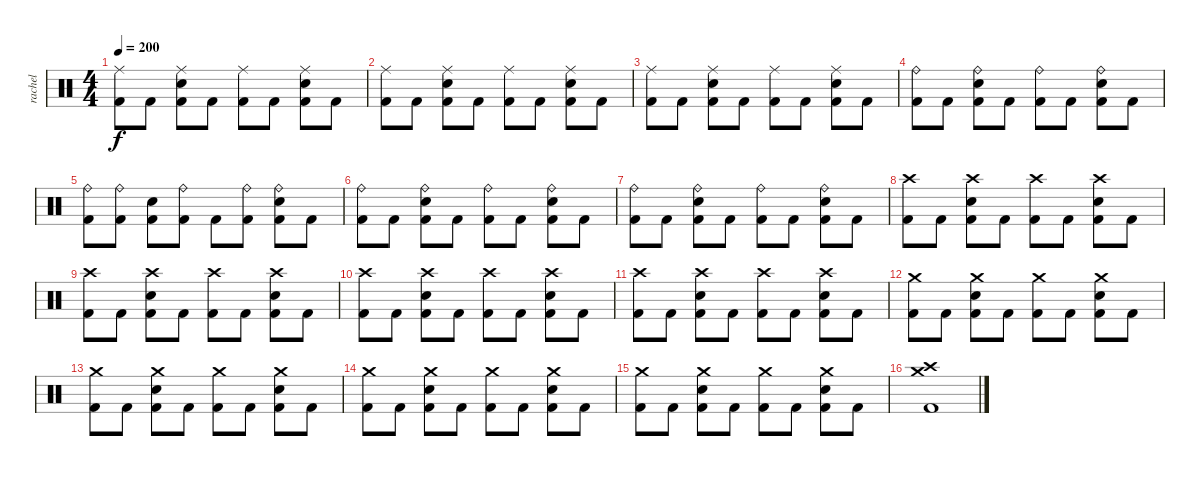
\track ("rachel" "rachel") {instrument percussion}
\staff {score}
\articulation defaults
\ts (4 4)
\tempo 200
\clef neutral
\ks c
("Ride (middle)" "Kick (hit) 2").8{dy f} "Kick (hit) 2".8 ("Ride (middle)" "Electric Snare (hit)" "Kick (hit) 2").8 "Kick (hit) 2".8 ("Ride (middle)" "Kick (hit) 2").8 "Kick (hit) 2".8 ("Ride (middle)" "Electric Snare (hit)" "Kick (hit) 2").8 "Kick (hit) 2".8 |
("Ride (middle)" "Kick (hit) 2").8 "Kick (hit) 2".8 ("Ride (middle)" "Electric Snare (hit)" "Kick (hit) 2").8 "Kick (hit) 2".8 ("Ride (middle)" "Kick (hit) 2").8 "Kick (hit) 2".8 ("Ride (middle)" "Electric Snare (hit)" "Kick (hit) 2").8 "Kick (hit) 2".8 |
("Ride (middle)" "Kick (hit) 2").8 "Kick (hit) 2".8 ("Ride (middle)" "Electric Snare (hit)" "Kick (hit) 2").8 "Kick (hit) 2".8 ("Ride (middle)" "Kick (hit) 2").8 "Kick (hit) 2".8 ("Ride (middle)" "Electric Snare (hit)" "Kick (hit) 2").8 "Kick (hit) 2".8 |
("Ride (bell)" "Kick (hit) 2").8 "Kick (hit) 2".8 ("Ride (bell)" "Electric Snare (hit)" "Kick (hit) 2").8 "Kick (hit) 2".8 ("Ride (bell)" "Kick (hit) 2").8 "Kick (hit) 2".8 ("Ride (bell)" "Electric Snare (hit)" "Kick (hit) 2").8 "Kick (hit) 2".8 |
("Ride (bell)" "Kick (hit) 2").8 ("Ride (bell)" "Kick (hit) 2").8 ("Electric Snare (hit)" "Kick (hit) 2").8 ("Ride (bell)" "Kick (hit) 2").8 "Kick (hit) 2".8 ("Ride (bell)" "Kick (hit) 2").8 ("Ride (bell)" "Electric Snare (hit)" "Kick (hit) 2").8 "Kick (hit) 2".8 |
("Ride (bell)" "Kick (hit) 2").8 "Kick (hit) 2".8 ("Ride (bell)" "Electric Snare (hit)" "Kick (hit) 2").8 "Kick (hit) 2".8 ("Ride (bell)" "Kick (hit) 2").8 "Kick (hit) 2".8 ("Ride (bell)" "Electric Snare (hit)" "Kick (hit) 2").8 "Kick (hit) 2".8 |
("Ride (bell)" "Kick (hit) 2").8 "Kick (hit) 2".8 ("Ride (bell)" "Electric Snare (hit)" "Kick (hit) 2").8 "Kick (hit) 2".8 ("Ride (bell)" "Kick (hit) 2").8 "Kick (hit) 2".8 ("Ride (bell)" "Electric Snare (hit)" "Kick (hit) 2").8 "Kick (hit) 2".8 |
("Crash high (hit)" "Kick (hit) 2").8 "Kick (hit) 2".8 ("Crash high (hit)" "Electric Snare (hit)" "Kick (hit) 2").8 "Kick (hit) 2".8 ("Crash high (hit)" "Kick (hit) 2").8 "Kick (hit) 2".8 ("Crash high (hit)" "Electric Snare (hit)" "Kick (hit) 2").8 "Kick (hit) 2".8 |
("Crash high (hit)" "Kick (hit) 2").8 "Kick (hit) 2".8 ("Crash high (hit)" "Electric Snare (hit)" "Kick (hit) 2").8 "Kick (hit) 2".8 ("Crash high (hit)" "Kick (hit) 2").8 "Kick (hit) 2".8 ("Crash high (hit)" "Electric Snare (hit)" "Kick (hit) 2").8 "Kick (hit) 2".8 |
("Crash high (hit)" "Kick (hit) 2").8 "Kick (hit) 2".8 ("Crash high (hit)" "Electric Snare (hit)" "Kick (hit) 2").8 "Kick (hit) 2".8 ("Crash high (hit)" "Kick (hit) 2").8 "Kick (hit) 2".8 ("Crash high (hit)" "Electric Snare (hit)" "Kick (hit) 2").8 "Kick (hit) 2".8 |
("Crash high (hit)" "Kick (hit) 2").8 "Kick (hit) 2".8 ("Crash high (hit)" "Electric Snare (hit)" "Kick (hit) 2").8 "Kick (hit) 2".8 ("Crash high (hit)" "Kick (hit) 2").8 "Kick (hit) 2".8 ("Crash high (hit)" "Electric Snare (hit)" "Kick (hit) 2").8 "Kick (hit) 2".8 |
("Crash medium (hit)" "Kick (hit) 2").8 "Kick (hit) 2".8 ("Crash medium (hit)" "Electric Snare (hit)" "Kick (hit) 2").8 "Kick (hit) 2".8 ("Crash medium (hit)" "Kick (hit) 2").8 "Kick (hit) 2".8 ("Crash medium (hit)" "Electric Snare (hit)" "Kick (hit) 2").8 "Kick (hit) 2".8 |
("Crash medium (hit)" "Kick (hit) 2").8 "Kick (hit) 2".8 ("Crash medium (hit)" "Electric Snare (hit)" "Kick (hit) 2").8 "Kick (hit) 2".8 ("Crash medium (hit)" "Kick (hit) 2").8 "Kick (hit) 2".8 ("Crash medium (hit)" "Electric Snare (hit)" "Kick (hit) 2").8 "Kick (hit) 2".8 |
("Crash medium (hit)" "Kick (hit) 2").8 "Kick (hit) 2".8 ("Crash medium (hit)" "Electric Snare (hit)" "Kick (hit) 2").8 "Kick (hit) 2".8 ("Crash medium (hit)" "Kick (hit) 2").8 "Kick (hit) 2".8 ("Crash medium (hit)" "Electric Snare (hit)" "Kick (hit) 2").8 "Kick (hit) 2".8 |
("Crash medium (hit)" "Kick (hit) 2").8 "Kick (hit) 2".8 ("Crash medium (hit)" "Electric Snare (hit)" "Kick (hit) 2").8 "Kick (hit) 2".8 ("Crash medium (hit)" "Kick (hit) 2").8 "Kick (hit) 2".8 ("Crash medium (hit)" "Electric Snare (hit)" "Kick (hit) 2").8 "Kick (hit) 2".8 |
("Crash high (hit)" "Crash medium (hit)" "Kick (hit) 2").1
